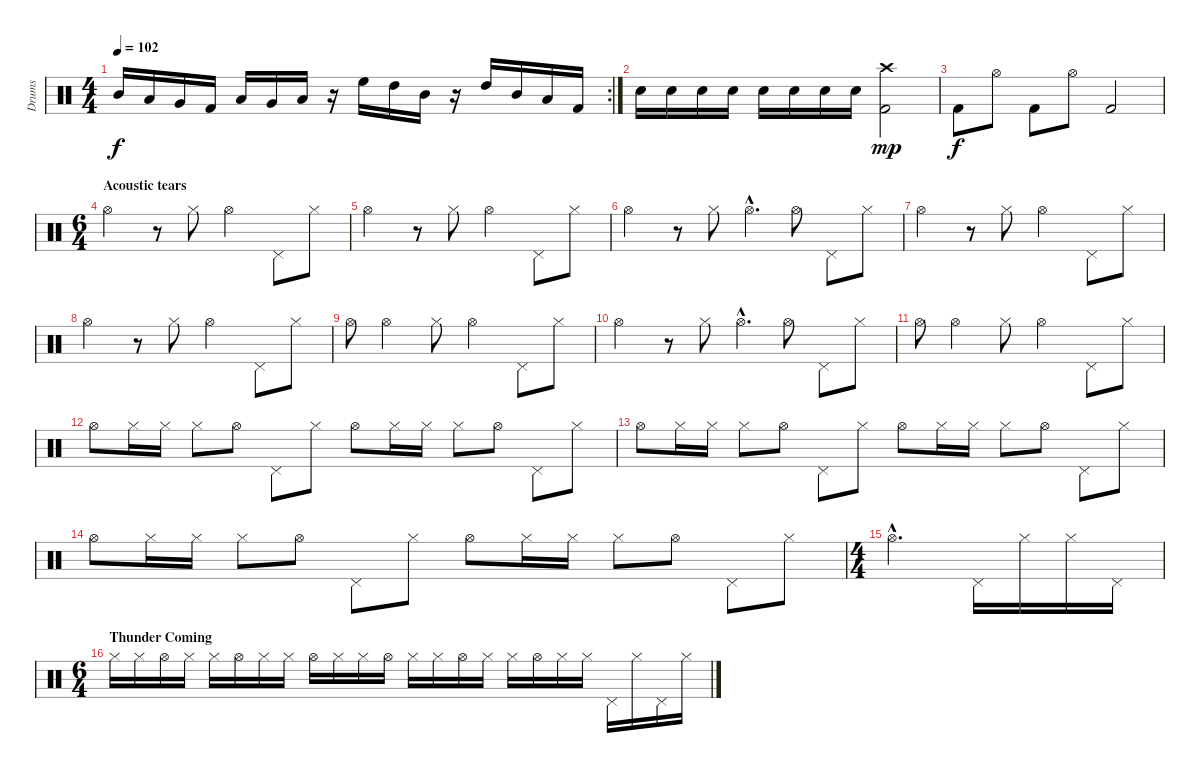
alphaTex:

\track ("Drums" "Drums") {instrument percussion}
\staff {score}
\articulation defaults
\rc 2
\ts (4 4)
\tempo 102
\clef neutral
\ks c "Mid Tom (hit)".16{dy f} "Low Tom (hit)".16 "Very Low Tom (hit)".16 "Kick (hit) 2".16 "Low Tom (hit)".16 "Very Low Tom (hit)".16 "Low Floor Tom (hit)".16
r.16 "High Floor Tom (hit)".16 "High Tom (hit)".16 "Mid Tom (hit)".16 r.16 "High Tom (hit)".16 "Mid Tom (hit)".16 "Low Tom (hit)".16 "Kick (hit) 2".16 |
"Electric Snare (hit)".16 "Electric Snare (hit)".16 "Electric Snare (hit)".16 "Electric Snare (hit)".16 "Electric Snare (hit)".16 "Electric Snare (hit)".16 "Electric Snare (hit)".16 "Electric Snare (hit)".16 ("Crash high (hit)" "Kick (hit) 2").2{dy mp} |
"Kick (hit) 2".8{dy f} "Hi-Hat (open)".8 "Kick (hit) 2".8 "Hi-Hat (open)".8 "Kick (hit) 2".2 |
\ts (6 4)
\section ("" "Acoustic tears")
"Hi-Hat (open)".2 r.8 "Hi-Hat (closed)".8 "Hi-Hat (open)".2 "Pedal Hi-Hat (hit)".8 "Hi-Hat (closed)".8 |
"Hi-Hat (open)".2 r.8 "Hi-Hat (closed)".8 "Hi-Hat (open)".2 "Pedal Hi-Hat (hit)".8 "Hi-Hat (closed)".8 |
"Hi-Hat (open)".2 r.8 "Hi-Hat (closed)".8 "Hi-Hat (open)"{hac}.4{d} "Hi-Hat (open)".8 "Pedal Hi-Hat (hit)".8 "Hi-Hat (closed)".8 |
"Hi-Hat (open)".2 r.8 "Hi-Hat (closed)".8 "Hi-Hat (open)".2 "Pedal Hi-Hat (hit)".8 "Hi-Hat (closed)".8 |
"Hi-Hat (open)".2 r.8 "Hi-Hat (closed)".8 "Hi-Hat (open)".2 "Pedal Hi-Hat (hit)".8 "Hi-Hat (closed)".8 |
"Hi-Hat (open)".8 "Hi-Hat (open)".2 "Hi-Hat (closed)".8 "Hi-Hat (open)".2 "Pedal Hi-Hat (hit)".8 "Hi-Hat (closed)".8 |
"Hi-Hat (open)".2 r.8 "Hi-Hat (closed)".8 "Hi-Hat (open)"{hac}.4{d} "Hi-Hat (open)".8 "Pedal Hi-Hat (hit)".8 "Hi-Hat (closed)".8 |
"Hi-Hat (open)".8 "Hi-Hat (open)".2 "Hi-Hat (closed)".8 "Hi-Hat (open)".2 "Pedal Hi-Hat (hit)".8 "Hi-Hat (closed)".8 |
"Hi-Hat (open)".8 "Hi-Hat (closed)".16 "Hi-Hat (closed)".16 "Hi-Hat (closed)".8 "Hi-Hat (open)".8 "Pedal Hi-Hat (hit)".8 "Hi-Hat (closed)".8 "Hi-Hat (open)".8 "Hi-Hat (closed)".16 "Hi-Hat (closed)".16 "Hi-Hat (closed)".8 "Hi-Hat (open)".8 "Pedal Hi-Hat (hit)".8 "Hi-Hat (closed)".8 |
"Hi-Hat (open)".8 "Hi-Hat (closed)".16 "Hi-Hat (closed)".16 "Hi-Hat (closed)".8 "Hi-Hat (open)".8 "Pedal Hi-Hat (hit)".8 "Hi-Hat (closed)".8 "Hi-Hat (open)".8 "Hi-Hat (closed)".16 "Hi-Hat (closed)".16 "Hi-Hat (closed)".8 "Hi-Hat (open)".8 "Pedal Hi-Hat (hit)".8 "Hi-Hat (closed)".8 |
"Hi-Hat (open)".8 "Hi-Hat (closed)".16 "Hi-Hat (closed)".16 "Hi-Hat (closed)".8 "Hi-Hat (open)".8 "Pedal Hi-Hat (hit)".8 "Hi-Hat (closed)".8 "Hi-Hat (open)".8 "Hi-Hat (closed)".16 "Hi-Hat (closed)".16 "Hi-Hat (closed)".8 "Hi-Hat (open)".8 "Pedal Hi-Hat (hit)".8 "Hi-Hat (closed)".8 |
\ts (4 4)
"Hi-Hat (open)"{hac}.2{d} "Pedal Hi-Hat (hit)".16 "Hi-Hat (closed)".16 "Hi-Hat (closed)".16 "Pedal Hi-Hat (hit)".16 |
\ts (6 4)
\section ("" "Thunder Coming")
"Hi-Hat (closed)".16 "Hi-Hat (closed)".16 "Hi-Hat (open)".16 "Hi-Hat (closed)".16 "Hi-Hat (closed)".16 "Hi-Hat (open)".16 "Hi-Hat (closed)".16 "Hi-Hat (closed)".16 "Hi-Hat (open)".16 "Hi-Hat (closed)".16 "Hi-Hat (closed)".16 "Hi-Hat (open)".16 "Hi-Hat (closed)".16 "Hi-Hat (closed)".16 "Hi-Hat (open)".16 "Hi-Hat (closed)".16 "Hi-Hat (closed)".16 "Hi-Hat (open)".16 "Hi-Hat (closed)".16 "Hi-Hat (closed)".16 "Pedal Hi-Hat (hit)".16 "Hi-Hat (closed)".16 "Pedal Hi-Hat (hit)".16 "Hi-Hat (closed)".16
